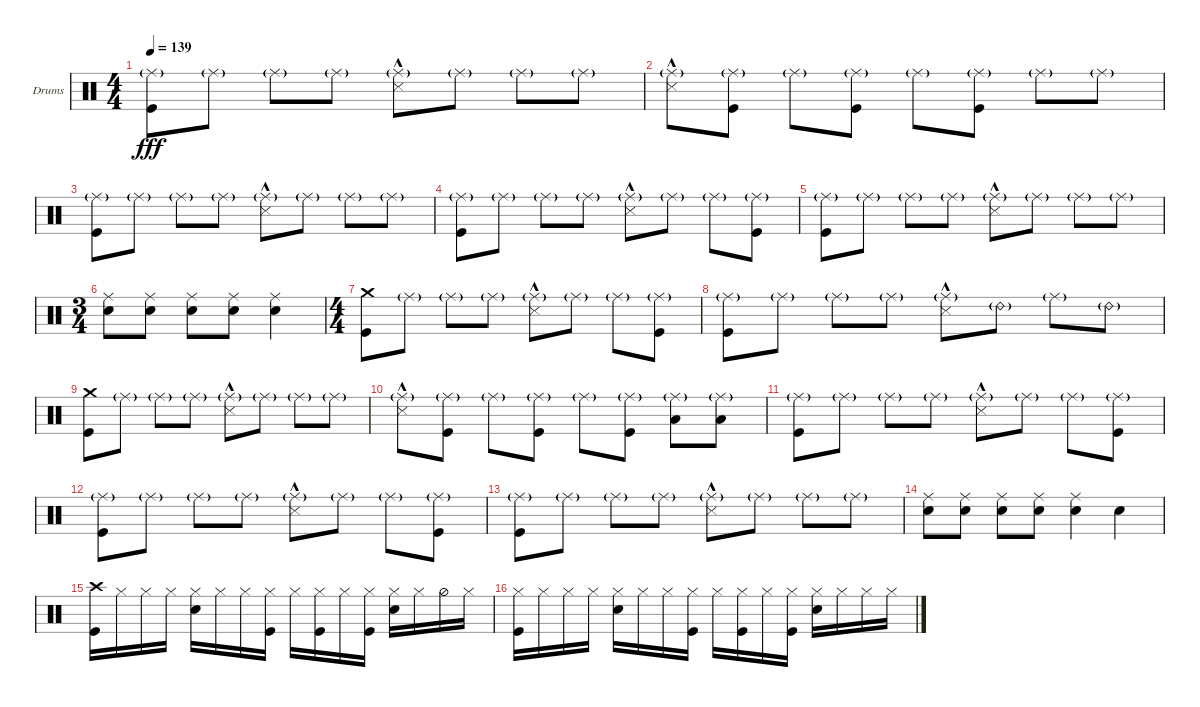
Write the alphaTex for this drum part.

\defaultSystemsLayout 4
\bracketExtendMode groupsimilarinstruments
\firstSystemTrackNameOrientation horizontal
\otherSystemsTrackNameOrientation horizontal
\track ("Drumkit" "Drums") {instrument percussion}
\staff {score}
\articulation defaults
\ts (4 4)
\tempo 139
\clef neutral
\ks c
("Kick (hit)" "Ride (middle)"{g}).8{dy fff} "Ride (middle)"{g}.8 "Ride (middle)"{g}.8 "Ride (middle)"{g}.8 ("Ride (middle)"{g} "Snare (side stick) 3"{hac}).8 "Ride (middle)"{g}.8 "Ride (middle)"{g}.8 "Ride (middle)"{g}.8 |
("Snare (side stick) 3"{hac} "Ride (middle)"{g}).8 ("Kick (hit)" "Ride (middle)"{g}).8 "Ride (middle)"{g}.8 ("Kick (hit)" "Ride (middle)"{g}).8 "Ride (middle)"{g}.8 ("Kick (hit)" "Ride (middle)"{g}).8 "Ride (middle)"{g}.8 "Ride (middle)"{g}.8 |
("Kick (hit)" "Ride (middle)"{g}).8 "Ride (middle)"{g}.8 "Ride (middle)"{g}.8 "Ride (middle)"{g}.8 ("Ride (middle)"{g} "Snare (side stick) 3"{hac}).8 "Ride (middle)"{g}.8 "Ride (middle)"{g}.8 "Ride (middle)"{g}.8 |
("Kick (hit)" "Ride (middle)"{g}).8 "Ride (middle)"{g}.8 "Ride (middle)"{g}.8 "Ride (middle)"{g}.8 ("Ride (middle)"{g} "Snare (side stick) 3"{hac}).8 "Ride (middle)"{g}.8 "Ride (middle)"{g}.8 ("Ride (middle)"{g} "Kick (hit)").8 |
("Kick (hit)" "Ride (middle)"{g}).8 "Ride (middle)"{g}.8 "Ride (middle)"{g}.8 "Ride (middle)"{g}.8 ("Ride (middle)"{g} "Snare (side stick) 3"{hac}).8 "Ride (middle)"{g}.8 "Ride (middle)"{g}.8 "Ride (middle)"{g}.8 |
\ts (3 4)
("Snare (hit) 2" "Ride (middle)").8 ("Snare (hit) 2" "Ride (middle)").8 ("Snare (hit) 2" "Ride (middle)").8 ("Snare (hit) 2" "Ride (middle)").8 ("Snare (hit) 2" "Ride (middle)").4 |
\ts (4 4)
("Kick (hit)" "Crash medium (hit)").8 "Ride (middle)"{g}.8 "Ride (middle)"{g}.8 "Ride (middle)"{g}.8 ("Ride (middle)"{g} "Snare (side stick) 3"{hac}).8 "Ride (middle)"{g}.8 "Ride (middle)"{g}.8 ("Ride (middle)"{g} "Kick (hit)").8 |
("Kick (hit)" "Ride (middle)"{g}).8 "Ride (middle)"{g}.8 "Ride (middle)"{g}.8 "Ride (middle)"{g}.8 ("Ride (middle)"{g} "Snare (side stick) 3"{hac}).8 "Ride (bell) 2"{g}.8 "Ride (middle)"{g}.8 "Ride (bell) 2"{g}.8 |
("Kick (hit)" "Crash medium (hit)").8 "Ride (middle)"{g}.8 "Ride (middle)"{g}.8 "Ride (middle)"{g}.8 ("Ride (middle)"{g} "Snare (side stick) 3"{hac}).8 "Ride (middle)"{g}.8 "Ride (middle)"{g}.8 "Ride (middle)"{g}.8 |
("Snare (side stick) 3"{hac} "Ride (middle)"{g}).8 ("Kick (hit)" "Ride (middle)"{g}).8 "Ride (middle)"{g}.8 ("Kick (hit)" "Ride (middle)"{g}).8 "Ride (middle)"{g}.8 ("Kick (hit)" "Ride (middle)"{g}).8 ("Ride (middle)"{g} "Low Tom (hit)").8 ("Ride (middle)"{g} "Low Tom (hit)").8 |
("Kick (hit)" "Ride (middle)"{g}).8 "Ride (middle)"{g}.8 "Ride (middle)"{g}.8 "Ride (middle)"{g}.8 ("Ride (middle)"{g} "Snare (side stick) 3"{hac}).8 "Ride (middle)"{g}.8 "Ride (middle)"{g}.8 ("Ride (middle)"{g} "Kick (hit)").8 |
("Kick (hit)" "Ride (middle)"{g}).8 "Ride (middle)"{g}.8 "Ride (middle)"{g}.8 "Ride (middle)"{g}.8 ("Ride (middle)"{g} "Snare (side stick) 3"{hac}).8 "Ride (middle)"{g}.8 "Ride (middle)"{g}.8 ("Ride (middle)"{g} "Kick (hit)").8 |
("Kick (hit)" "Ride (middle)"{g}).8 "Ride (middle)"{g}.8 "Ride (middle)"{g}.8 "Ride (middle)"{g}.8 ("Ride (middle)"{g} "Snare (side stick) 3"{hac}).8 "Ride (middle)"{g}.8 "Ride (middle)"{g}.8 "Ride (middle)"{g}.8 |
("Snare (hit) 2" "Ride (middle)").8 ("Snare (hit) 2" "Ride (middle)").8 ("Snare (hit) 2" "Ride (middle)").8 ("Snare (hit) 2" "Ride (middle)").8 ("Snare (hit) 2" "Ride (middle)").4 "Snare (hit) 2".4 |
("Kick (hit)" "Crash high (hit)").16 "Hi-Hat (closed)".16 "Hi-Hat (closed)".16 "Hi-Hat (closed)".16 ("Hi-Hat (closed)" "Snare (hit) 2").16 "Hi-Hat (closed)".16 "Hi-Hat (closed)".16 ("Hi-Hat (closed)" "Kick (hit)").16 "Hi-Hat (closed)".16 ("Hi-Hat (closed)" "Kick (hit)").16 "Hi-Hat (closed)".16 ("Hi-Hat (closed)" "Kick (hit)").16 ("Hi-Hat (closed)" "Snare (hit) 2").16 "Hi-Hat (closed)".16 "Hi-Hat (half)".16 "Hi-Hat (closed)".16 |
("Hi-Hat (closed)" "Kick (hit)").16 "Hi-Hat (closed)".16 "Hi-Hat (closed)".16 "Hi-Hat (closed)".16 ("Hi-Hat (closed)" "Snare (hit) 2").16 "Hi-Hat (closed)".16 "Hi-Hat (closed)".16 ("Hi-Hat (closed)" "Kick (hit)").16 "Hi-Hat (closed)".16 ("Hi-Hat (closed)" "Kick (hit)").16 "Hi-Hat (closed)".16 ("Hi-Hat (closed)" "Kick (hit)").16 ("Hi-Hat (closed)" "Snare (hit) 2").16 "Hi-Hat (closed)".16 "Hi-Hat (closed)".16 "Hi-Hat (closed)".16
